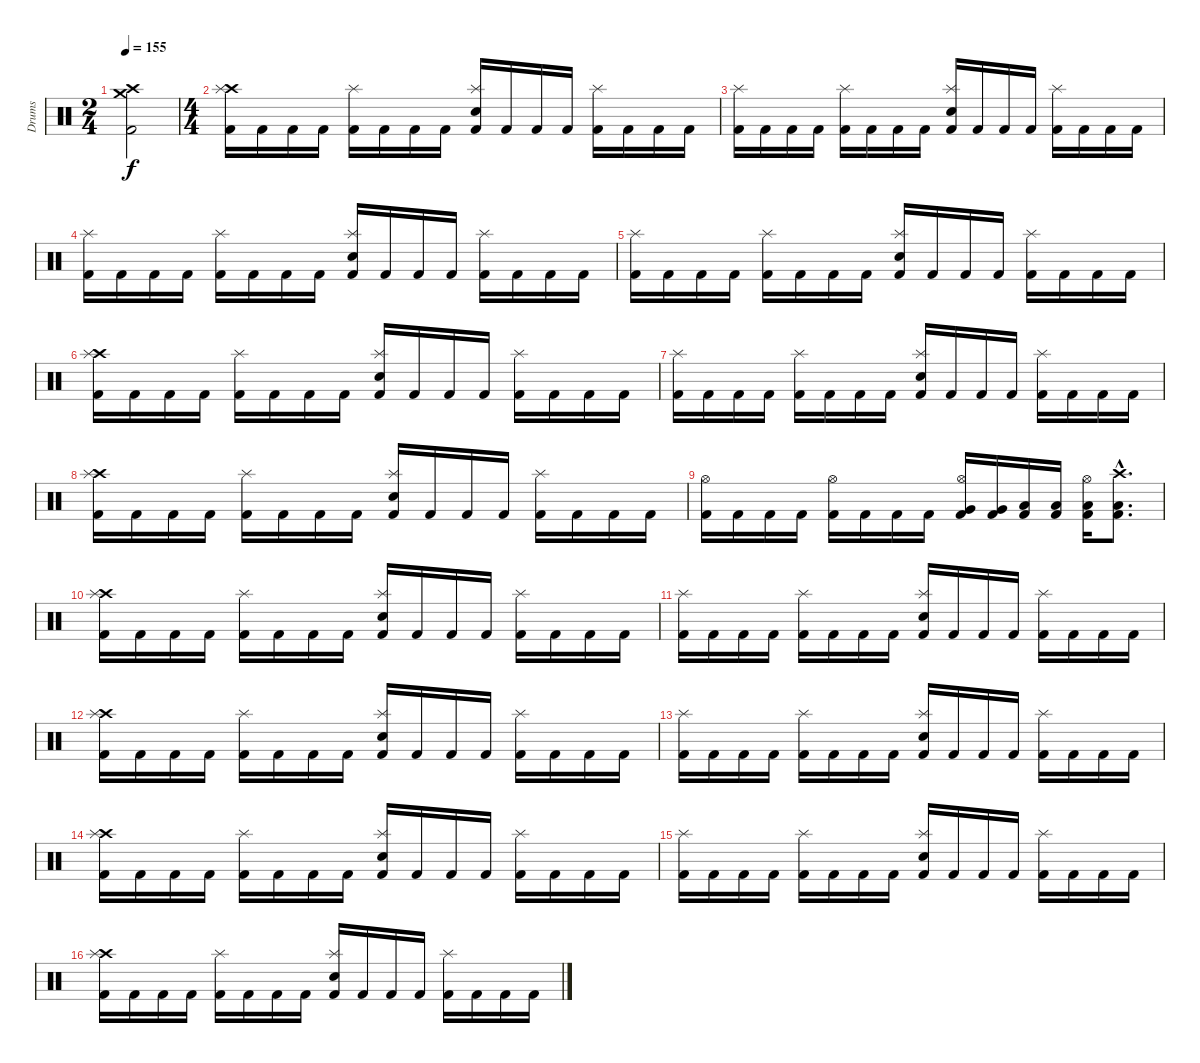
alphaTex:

\track ("Drums" "Drums") {instrument percussion}
\staff {score}
\articulation defaults
\ts (2 4)
\tempo 155
\clef neutral
\ks c
("Crash high (hit)" "Crash medium (hit)" "Kick (hit) 2").2{dy f} |
\ts (4 4)
("Crash high (hit)" "Splash (hit)" "Kick (hit) 2").16 "Kick (hit) 2".16 "Kick (hit) 2".16 "Kick (hit) 2".16 ("Splash (hit)" "Kick (hit) 2").16 "Kick (hit) 2".16 "Kick (hit) 2".16 "Kick (hit) 2".16 ("Splash (hit)" "Electric Snare (hit)" "Kick (hit) 2").16 "Kick (hit) 2".16 "Kick (hit) 2".16 "Kick (hit) 2".16 ("Splash (hit)" "Kick (hit) 2").16 "Kick (hit) 2".16 "Kick (hit) 2".16 "Kick (hit) 2".16 |
("Splash (hit)" "Kick (hit) 2").16 "Kick (hit) 2".16 "Kick (hit) 2".16 "Kick (hit) 2".16 ("Splash (hit)" "Kick (hit) 2").16 "Kick (hit) 2".16 "Kick (hit) 2".16 "Kick (hit) 2".16 ("Splash (hit)" "Electric Snare (hit)" "Kick (hit) 2").16 "Kick (hit) 2".16 "Kick (hit) 2".16 "Kick (hit) 2".16 ("Splash (hit)" "Kick (hit) 2").16 "Kick (hit) 2".16 "Kick (hit) 2".16 "Kick (hit) 2".16 |
("Splash (hit)" "Kick (hit) 2").16 "Kick (hit) 2".16 "Kick (hit) 2".16 "Kick (hit) 2".16 ("Splash (hit)" "Kick (hit) 2").16 "Kick (hit) 2".16 "Kick (hit) 2".16 "Kick (hit) 2".16 ("Splash (hit)" "Electric Snare (hit)" "Kick (hit) 2").16 "Kick (hit) 2".16 "Kick (hit) 2".16 "Kick (hit) 2".16 ("Splash (hit)" "Kick (hit) 2").16 "Kick (hit) 2".16 "Kick (hit) 2".16 "Kick (hit) 2".16 |
("Splash (hit)" "Kick (hit) 2").16 "Kick (hit) 2".16 "Kick (hit) 2".16 "Kick (hit) 2".16 ("Splash (hit)" "Kick (hit) 2").16 "Kick (hit) 2".16 "Kick (hit) 2".16 "Kick (hit) 2".16 ("Splash (hit)" "Electric Snare (hit)" "Kick (hit) 2").16 "Kick (hit) 2".16 "Kick (hit) 2".16 "Kick (hit) 2".16 ("Splash (hit)" "Kick (hit) 2").16 "Kick (hit) 2".16 "Kick (hit) 2".16 "Kick (hit) 2".16 |
("Crash high (hit)" "Splash (hit)" "Kick (hit) 2").16 "Kick (hit) 2".16 "Kick (hit) 2".16 "Kick (hit) 2".16 ("Splash (hit)" "Kick (hit) 2").16 "Kick (hit) 2".16 "Kick (hit) 2".16 "Kick (hit) 2".16 ("Splash (hit)" "Electric Snare (hit)" "Kick (hit) 2").16 "Kick (hit) 2".16 "Kick (hit) 2".16 "Kick (hit) 2".16 ("Splash (hit)" "Kick (hit) 2").16 "Kick (hit) 2".16 "Kick (hit) 2".16 "Kick (hit) 2".16 |
("Splash (hit)" "Kick (hit) 2").16 "Kick (hit) 2".16 "Kick (hit) 2".16 "Kick (hit) 2".16 ("Splash (hit)" "Kick (hit) 2").16 "Kick (hit) 2".16 "Kick (hit) 2".16 "Kick (hit) 2".16 ("Splash (hit)" "Electric Snare (hit)" "Kick (hit) 2").16 "Kick (hit) 2".16 "Kick (hit) 2".16 "Kick (hit) 2".16 ("Splash (hit)" "Kick (hit) 2").16 "Kick (hit) 2".16 "Kick (hit) 2".16 "Kick (hit) 2".16 |
("Crash high (hit)" "Splash (hit)" "Kick (hit) 2").16 "Kick (hit) 2".16 "Kick (hit) 2".16 "Kick (hit) 2".16 ("Splash (hit)" "Kick (hit) 2").16 "Kick (hit) 2".16 "Kick (hit) 2".16 "Kick (hit) 2".16 ("Splash (hit)" "Electric Snare (hit)" "Kick (hit) 2").16 "Kick (hit) 2".16 "Kick (hit) 2".16 "Kick (hit) 2".16 ("Splash (hit)" "Kick (hit) 2").16 "Kick (hit) 2".16 "Kick (hit) 2".16 "Kick (hit) 2".16 |
("Hi-Hat (open)" "Kick (hit) 2").16 "Kick (hit) 2".16 "Kick (hit) 2".16 "Kick (hit) 2".16 ("Hi-Hat (open)" "Kick (hit) 2").16 "Kick (hit) 2".16 "Kick (hit) 2".16 "Kick (hit) 2".16 ("Hi-Hat (open)" "Very Low Tom (hit)" "Kick (hit) 2").16 ("Very Low Tom (hit)" "Kick (hit) 2").16 ("Low Tom (hit)" "Kick (hit) 2").16 ("Low Tom (hit)" "Kick (hit) 2").16 ("Hi-Hat (open)" "Low Floor Tom (hit)" "Kick (hit) 2").16 ("Crash high (hit)"{hac} "Low Floor Tom (hit)"{hac} "Kick (hit) 2"{hac}).8{d} |
("Crash high (hit)" "Splash (hit)" "Kick (hit) 2").16 "Kick (hit) 2".16 "Kick (hit) 2".16 "Kick (hit) 2".16 ("Splash (hit)" "Kick (hit) 2").16 "Kick (hit) 2".16 "Kick (hit) 2".16 "Kick (hit) 2".16 ("Splash (hit)" "Electric Snare (hit)" "Kick (hit) 2").16 "Kick (hit) 2".16 "Kick (hit) 2".16 "Kick (hit) 2".16 ("Splash (hit)" "Kick (hit) 2").16 "Kick (hit) 2".16 "Kick (hit) 2".16 "Kick (hit) 2".16 |
("Splash (hit)" "Kick (hit) 2").16 "Kick (hit) 2".16 "Kick (hit) 2".16 "Kick (hit) 2".16 ("Splash (hit)" "Kick (hit) 2").16 "Kick (hit) 2".16 "Kick (hit) 2".16 "Kick (hit) 2".16 ("Splash (hit)" "Electric Snare (hit)" "Kick (hit) 2").16 "Kick (hit) 2".16 "Kick (hit) 2".16 "Kick (hit) 2".16 ("Splash (hit)" "Kick (hit) 2").16 "Kick (hit) 2".16 "Kick (hit) 2".16 "Kick (hit) 2".16 |
("Crash high (hit)" "Splash (hit)" "Kick (hit) 2").16 "Kick (hit) 2".16 "Kick (hit) 2".16 "Kick (hit) 2".16 ("Splash (hit)" "Kick (hit) 2").16 "Kick (hit) 2".16 "Kick (hit) 2".16 "Kick (hit) 2".16 ("Splash (hit)" "Electric Snare (hit)" "Kick (hit) 2").16 "Kick (hit) 2".16 "Kick (hit) 2".16 "Kick (hit) 2".16 ("Splash (hit)" "Kick (hit) 2").16 "Kick (hit) 2".16 "Kick (hit) 2".16 "Kick (hit) 2".16 |
("Splash (hit)" "Kick (hit) 2").16 "Kick (hit) 2".16 "Kick (hit) 2".16 "Kick (hit) 2".16 ("Splash (hit)" "Kick (hit) 2").16 "Kick (hit) 2".16 "Kick (hit) 2".16 "Kick (hit) 2".16 ("Splash (hit)" "Electric Snare (hit)" "Kick (hit) 2").16 "Kick (hit) 2".16 "Kick (hit) 2".16 "Kick (hit) 2".16 ("Splash (hit)" "Kick (hit) 2").16 "Kick (hit) 2".16 "Kick (hit) 2".16 "Kick (hit) 2".16 |
("Crash high (hit)" "Splash (hit)" "Kick (hit) 2").16 "Kick (hit) 2".16 "Kick (hit) 2".16 "Kick (hit) 2".16 ("Splash (hit)" "Kick (hit) 2").16 "Kick (hit) 2".16 "Kick (hit) 2".16 "Kick (hit) 2".16 ("Splash (hit)" "Electric Snare (hit)" "Kick (hit) 2").16 "Kick (hit) 2".16 "Kick (hit) 2".16 "Kick (hit) 2".16 ("Splash (hit)" "Kick (hit) 2").16 "Kick (hit) 2".16 "Kick (hit) 2".16 "Kick (hit) 2".16 |
("Splash (hit)" "Kick (hit) 2").16 "Kick (hit) 2".16 "Kick (hit) 2".16 "Kick (hit) 2".16 ("Splash (hit)" "Kick (hit) 2").16 "Kick (hit) 2".16 "Kick (hit) 2".16 "Kick (hit) 2".16 ("Splash (hit)" "Electric Snare (hit)" "Kick (hit) 2").16 "Kick (hit) 2".16 "Kick (hit) 2".16 "Kick (hit) 2".16 ("Splash (hit)" "Kick (hit) 2").16 "Kick (hit) 2".16 "Kick (hit) 2".16 "Kick (hit) 2".16 |
("Crash high (hit)" "Splash (hit)" "Kick (hit) 2").16 "Kick (hit) 2".16 "Kick (hit) 2".16 "Kick (hit) 2".16 ("Splash (hit)" "Kick (hit) 2").16 "Kick (hit) 2".16 "Kick (hit) 2".16 "Kick (hit) 2".16 ("Splash (hit)" "Electric Snare (hit)" "Kick (hit) 2").16 "Kick (hit) 2".16 "Kick (hit) 2".16 "Kick (hit) 2".16 ("Splash (hit)" "Kick (hit) 2").16 "Kick (hit) 2".16 "Kick (hit) 2".16 "Kick (hit) 2".16
